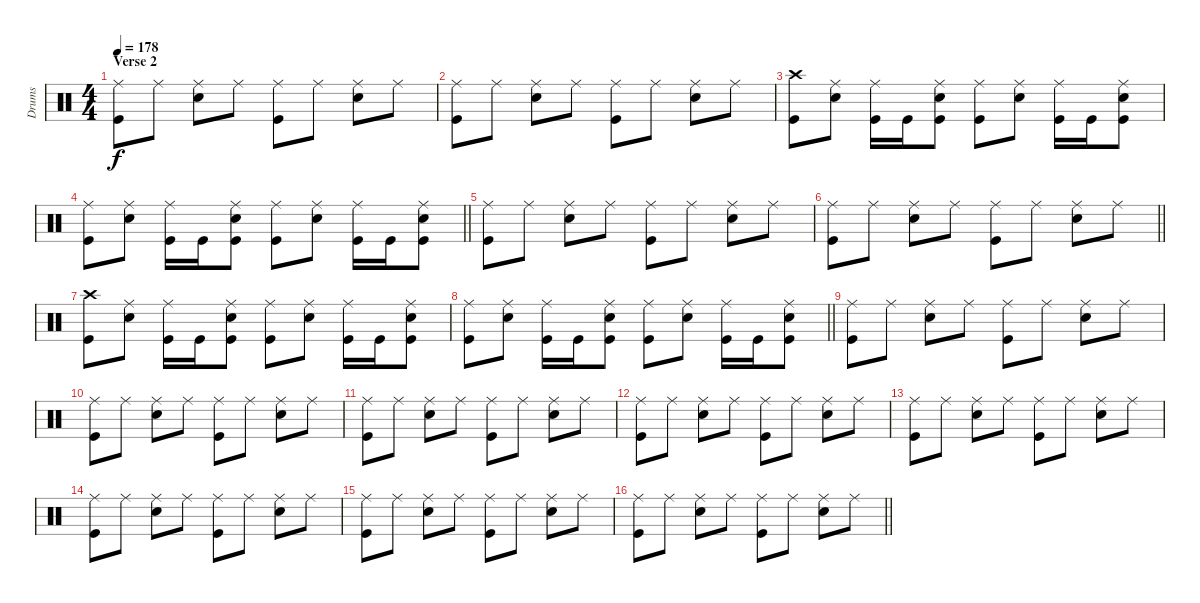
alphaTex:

\track ("Drums" "Drums") {instrument percussion}
\staff {score}
\articulation defaults
\ts (4 4)
\section ("" "Verse 2")
\tempo 178
\clef neutral
\ks c
("Kick (hit)" "Ride (middle)").8{dy f} "Ride (middle)".8 ("Ride (middle)" "Snare (hit) 2").8 "Ride (middle)".8 ("Ride (middle)" "Kick (hit)").8 "Ride (middle)".8 ("Ride (middle)" "Snare (hit) 2").8 "Ride (middle)".8 |
("Ride (middle)" "Kick (hit)").8 "Ride (middle)".8 ("Ride (middle)" "Snare (hit) 2").8 "Ride (middle)".8 ("Ride (middle)" "Kick (hit)").8 "Ride (middle)".8 ("Ride (middle)" "Snare (hit) 2").8 "Ride (middle)".8 |
("Kick (hit)" "Crash high (hit)").8 ("Snare (hit) 2" "Ride (middle)").8 ("Kick (hit)" "Ride (middle)").16 "Kick (hit)".16 ("Kick (hit)" "Ride (middle)" "Snare (hit) 2").8 ("Kick (hit)" "Ride (middle)").8 ("Snare (hit) 2" "Ride (middle)").8 ("Kick (hit)" "Ride (middle)").16 "Kick (hit)".16 ("Kick (hit)" "Ride (middle)" "Snare (hit) 2").8 |
\barLineRight lightlight
("Kick (hit)" "Ride (middle)").8 ("Snare (hit) 2" "Ride (middle)").8 ("Kick (hit)" "Ride (middle)").16 "Kick (hit)".16 ("Kick (hit)" "Ride (middle)" "Snare (hit) 2").8 ("Kick (hit)" "Ride (middle)").8 ("Snare (hit) 2" "Ride (middle)").8 ("Kick (hit)" "Ride (middle)").16 "Kick (hit)".16 ("Kick (hit)" "Ride (middle)" "Snare (hit) 2").8 |
("Kick (hit)" "Ride (middle)").8 "Ride (middle)".8 ("Ride (middle)" "Snare (hit) 2").8 "Ride (middle)".8 ("Ride (middle)" "Kick (hit)").8 "Ride (middle)".8 ("Ride (middle)" "Snare (hit) 2").8 "Ride (middle)".8 |
\barLineRight lightlight
("Ride (middle)" "Kick (hit)").8 "Ride (middle)".8 ("Ride (middle)" "Snare (hit) 2").8 "Ride (middle)".8 ("Ride (middle)" "Kick (hit)").8 "Ride (middle)".8 ("Ride (middle)" "Snare (hit) 2").8 "Ride (middle)".8 |
("Kick (hit)" "Crash high (hit)").8 ("Snare (hit) 2" "Ride (middle)").8 ("Kick (hit)" "Ride (middle)").16 "Kick (hit)".16 ("Kick (hit)" "Ride (middle)" "Snare (hit) 2").8 ("Kick (hit)" "Ride (middle)").8 ("Snare (hit) 2" "Ride (middle)").8 ("Kick (hit)" "Ride (middle)").16 "Kick (hit)".16 ("Kick (hit)" "Ride (middle)" "Snare (hit) 2").8 |
\barLineRight lightlight
("Kick (hit)" "Ride (middle)").8 ("Snare (hit) 2" "Ride (middle)").8 ("Kick (hit)" "Ride (middle)").16 "Kick (hit)".16 ("Kick (hit)" "Ride (middle)" "Snare (hit) 2").8 ("Kick (hit)" "Ride (middle)").8 ("Snare (hit) 2" "Ride (middle)").8 ("Kick (hit)" "Ride (middle)").16 "Kick (hit)".16 ("Kick (hit)" "Ride (middle)" "Snare (hit) 2").8 |
("Kick (hit)" "Ride (middle)").8 "Ride (middle)".8 ("Ride (middle)" "Snare (hit) 2").8 "Ride (middle)".8 ("Ride (middle)" "Kick (hit)").8 "Ride (middle)".8 ("Ride (middle)" "Snare (hit) 2").8 "Ride (middle)".8 |
("Ride (middle)" "Kick (hit)").8 "Ride (middle)".8 ("Ride (middle)" "Snare (hit) 2").8 "Ride (middle)".8 ("Ride (middle)" "Kick (hit)").8 "Ride (middle)".8 ("Ride (middle)" "Snare (hit) 2").8 "Ride (middle)".8 |
("Kick (hit)" "Ride (middle)").8 "Ride (middle)".8 ("Ride (middle)" "Snare (hit) 2").8 "Ride (middle)".8 ("Ride (middle)" "Kick (hit)").8 "Ride (middle)".8 ("Ride (middle)" "Snare (hit) 2").8 "Ride (middle)".8 |
("Ride (middle)" "Kick (hit)").8 "Ride (middle)".8 ("Ride (middle)" "Snare (hit) 2").8 "Ride (middle)".8 ("Ride (middle)" "Kick (hit)").8 "Ride (middle)".8 ("Ride (middle)" "Snare (hit) 2").8 "Ride (middle)".8 |
("Kick (hit)" "Ride (middle)").8 "Ride (middle)".8 ("Ride (middle)" "Snare (hit) 2").8 "Ride (middle)".8 ("Ride (middle)" "Kick (hit)").8 "Ride (middle)".8 ("Ride (middle)" "Snare (hit) 2").8 "Ride (middle)".8 |
("Ride (middle)" "Kick (hit)").8 "Ride (middle)".8 ("Ride (middle)" "Snare (hit) 2").8 "Ride (middle)".8 ("Ride (middle)" "Kick (hit)").8 "Ride (middle)".8 ("Ride (middle)" "Snare (hit) 2").8 "Ride (middle)".8 |
("Kick (hit)" "Ride (middle)").8 "Ride (middle)".8 ("Ride (middle)" "Snare (hit) 2").8 "Ride (middle)".8 ("Ride (middle)" "Kick (hit)").8 "Ride (middle)".8 ("Ride (middle)" "Snare (hit) 2").8 "Ride (middle)".8 |
\barLineRight lightlight
("Ride (middle)" "Kick (hit)").8 "Ride (middle)".8 ("Ride (middle)" "Snare (hit) 2").8 "Ride (middle)".8 ("Ride (middle)" "Kick (hit)").8 "Ride (middle)".8 ("Ride (middle)" "Snare (hit) 2").8 "Ride (middle)".8
